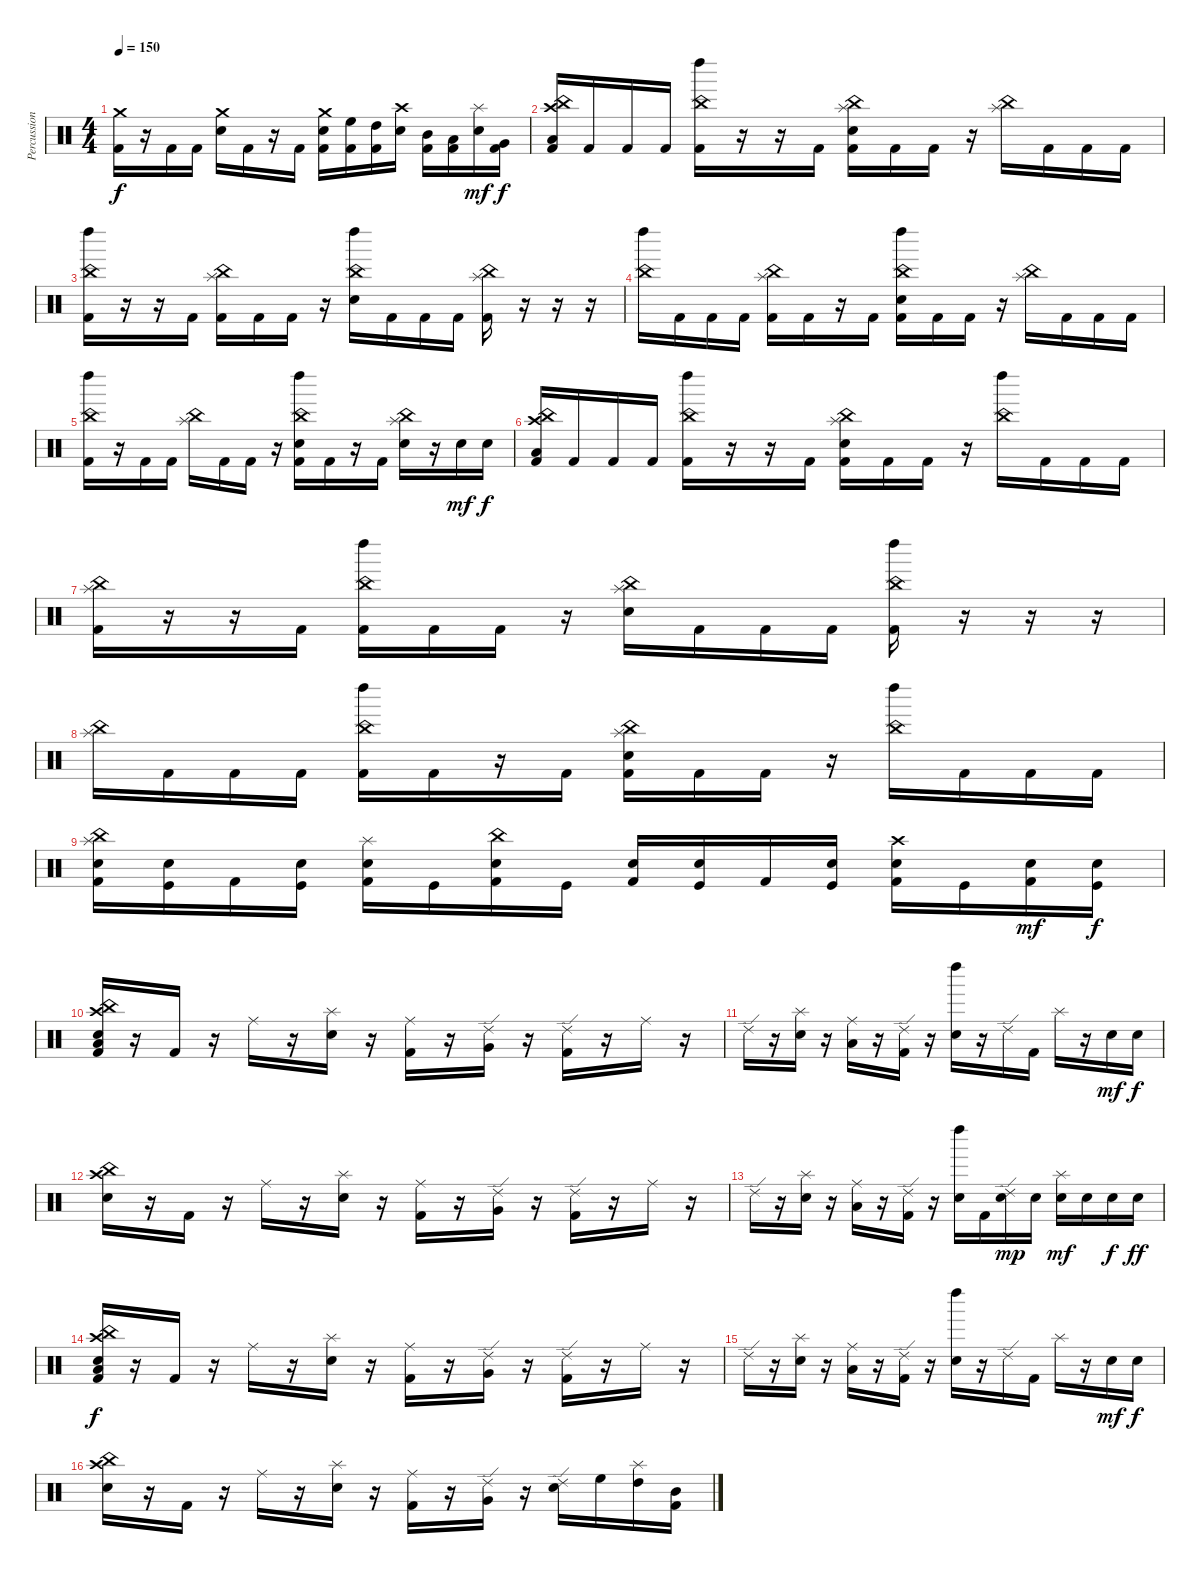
\track ("Percussion" "Percussion") {instrument percussion}
\staff {score}
\articulation defaults
\ts (4 4)
\tempo 150
\clef neutral
\ks c
("Crash medium (hit)" "Kick (hit) 2").16{dy f} r.16 "Kick (hit) 2".16 "Kick (hit) 2".16 ("Crash medium (hit)" "Electric Snare (hit)").16 "Kick (hit) 2".16 r.16 "Kick (hit) 2".16 ("Crash medium (hit)" "Electric Snare (hit)" "Kick (hit) 2").16 ("High Floor Tom (hit)" "Kick (hit) 2").16 ("High Tom (hit)" "Kick (hit) 2").16 ("Crash high (hit)" "Electric Snare (hit)").16 ("Mid Tom (hit)" "Kick (hit) 2").16 ("Low Tom (hit)" "Kick (hit) 2").16 ("Splash (hit)" "Electric Snare (hit)").16{dy mf} ("Very Low Tom (hit)" "Kick (hit) 2").16{dy f} |
("China (hit)" "Crash high (hit)" "Low Floor Tom (hit)" "Kick (hit) 2").16 "Kick (hit) 2".16 "Kick (hit) 2".16 "Kick (hit) 2".16 ("China (hit)" "Left Maraca (hit)" "Kick (hit) 2").16 r.16 r.16 "Kick (hit) 2".16 ("China (hit)" "Splash (hit)" "Electric Snare (hit)" "Kick (hit) 2").16 "Kick (hit) 2".16 "Kick (hit) 2".16 r.16 ("China (hit)" "Splash (hit)").16 "Kick (hit) 2".16 "Kick (hit) 2".16 "Kick (hit) 2".16 |
("China (hit)" "Left Maraca (hit)" "Kick (hit) 2").16 r.16 r.16 "Kick (hit) 2".16 ("China (hit)" "Splash (hit)" "Kick (hit) 2").16 "Kick (hit) 2".16 "Kick (hit) 2".16 r.16 ("China (hit)" "Left Maraca (hit)" "Electric Snare (hit)").16 "Kick (hit) 2".16 "Kick (hit) 2".16 "Kick (hit) 2".16 ("China (hit)" "Splash (hit)" "Kick (hit) 2").16 r.16 r.16 r.16 |
("China (hit)" "Left Maraca (hit)").16 "Kick (hit) 2".16 "Kick (hit) 2".16 "Kick (hit) 2".16 ("China (hit)" "Splash (hit)" "Kick (hit) 2").16 "Kick (hit) 2".16 r.16 "Kick (hit) 2".16 ("China (hit)" "Left Maraca (hit)" "Electric Snare (hit)" "Kick (hit) 2").16 "Kick (hit) 2".16 "Kick (hit) 2".16 r.16 ("China (hit)" "Splash (hit)").16 "Kick (hit) 2".16 "Kick (hit) 2".16 "Kick (hit) 2".16 |
("China (hit)" "Left Maraca (hit)" "Kick (hit) 2").16 r.16 "Kick (hit) 2".16 "Kick (hit) 2".16 ("China (hit)" "Splash (hit)").16 "Kick (hit) 2".16 "Kick (hit) 2".16 r.16 ("China (hit)" "Left Maraca (hit)" "Electric Snare (hit)" "Kick (hit) 2").16 "Kick (hit) 2".16 r.16 "Kick (hit) 2".16 ("China (hit)" "Splash (hit)" "Electric Snare (hit)").16 r.16 "Electric Snare (hit)".16{dy mf} "Electric Snare (hit)".16{dy f} |
("China (hit)" "Crash high (hit)" "Low Floor Tom (hit)" "Kick (hit) 2").16 "Kick (hit) 2".16 "Kick (hit) 2".16 "Kick (hit) 2".16 ("China (hit)" "Left Maraca (hit)" "Kick (hit) 2").16 r.16 r.16 "Kick (hit) 2".16 ("China (hit)" "Splash (hit)" "Electric Snare (hit)" "Kick (hit) 2").16 "Kick (hit) 2".16 "Kick (hit) 2".16 r.16 ("China (hit)" "Left Maraca (hit)").16 "Kick (hit) 2".16 "Kick (hit) 2".16 "Kick (hit) 2".16 |
("China (hit)" "Splash (hit)" "Kick (hit) 2").16 r.16 r.16 "Kick (hit) 2".16 ("China (hit)" "Left Maraca (hit)" "Kick (hit) 2").16 "Kick (hit) 2".16 "Kick (hit) 2".16 r.16 ("China (hit)" "Splash (hit)" "Electric Snare (hit)").16 "Kick (hit) 2".16 "Kick (hit) 2".16 "Kick (hit) 2".16 ("China (hit)" "Left Maraca (hit)" "Kick (hit) 2").16 r.16 r.16 r.16 |
("China (hit)" "Splash (hit)").16 "Kick (hit) 2".16 "Kick (hit) 2".16 "Kick (hit) 2".16 ("China (hit)" "Left Maraca (hit)" "Kick (hit) 2").16 "Kick (hit) 2".16 r.16 "Kick (hit) 2".16 ("China (hit)" "Splash (hit)" "Electric Snare (hit)" "Kick (hit) 2").16 "Kick (hit) 2".16 "Kick (hit) 2".16 r.16 ("China (hit)" "Left Maraca (hit)").16 "Kick (hit) 2".16 "Kick (hit) 2".16 "Kick (hit) 2".16 |
("China (hit)" "Splash (hit)" "Electric Snare (hit)" "Kick (hit) 2").16 ("Electric Snare (hit)" "Kick (hit)").16 "Kick (hit) 2".16 ("Electric Snare (hit)" "Kick (hit)").16 ("Splash (hit)" "Electric Snare (hit)" "Kick (hit) 2").16 "Kick (hit)".16 ("China (hit)" "Electric Snare (hit)" "Kick (hit) 2").16 "Kick (hit)".16 ("Electric Snare (hit)" "Kick (hit) 2").16 ("Electric Snare (hit)" "Kick (hit)").16 "Kick (hit) 2".16 ("Electric Snare (hit)" "Kick (hit)").16 ("Crash high (hit)" "Electric Snare (hit)" "Kick (hit) 2").16 "Kick (hit)".16 ("Electric Snare (hit)" "Kick (hit) 2").16{dy mf} ("Electric Snare (hit)" "Kick (hit)").16{dy f} |
("Crash high (hit)" "China (hit)" "Electric Snare (hit)" "Low Floor Tom (hit)" "Kick (hit) 2").16 r.16 "Kick (hit) 2".16 r.16 "Ride (middle)".16 r.16 ("Splash (hit)" "Electric Snare (hit)").16 r.16 ("Ride (middle)" "Kick (hit) 2").16 r.16 ("Ride (edge) 2" "Very Low Tom (hit)").16 r.16 ("Ride (edge) 2" "Kick (hit) 2").16 r.16 "Ride (middle)".16 r.16 |
"Ride (edge) 2".16 r.16 ("Splash (hit)" "Electric Snare (hit)").16 r.16 ("Ride (middle)" "Low Tom (hit)").16 r.16 ("Ride (edge) 2" "Kick (hit) 2").16 r.16 ("Left Maraca (hit)" "Electric Snare (hit)").16 r.16 "Ride (edge) 2".16 "Kick (hit) 2".16 "Splash (hit)".16 r.16 "Electric Snare (hit)".16{dy mf} "Electric Snare (hit)".16{dy f} |
("Crash high (hit)" "China (hit)" "Electric Snare (hit)").16 r.16 "Kick (hit) 2".16 r.16 "Ride (middle)".16 r.16 ("Splash (hit)" "Electric Snare (hit)").16 r.16 ("Ride (middle)" "Kick (hit) 2").16 r.16 ("Ride (edge) 2" "Very Low Tom (hit)").16 r.16 ("Ride (edge) 2" "Kick (hit) 2").16 r.16 "Ride (middle)".16 r.16 |
"Ride (edge) 2".16 r.16 ("Splash (hit)" "Electric Snare (hit)").16 r.16 ("Ride (middle)" "Low Tom (hit)").16 r.16 ("Ride (edge) 2" "Kick (hit) 2").16 r.16 ("Left Maraca (hit)" "Electric Snare (hit)").16 "Kick (hit) 2".16 ("Ride (edge) 2" "Electric Snare (hit)").16{dy mp} "Electric Snare (hit)".16 ("Splash (hit)" "Electric Snare (hit)").16{dy mf} "Electric Snare (hit)".16 "Electric Snare (hit)".16{dy f} "Electric Snare (hit)".16{dy ff} |
("Crash high (hit)" "China (hit)" "Electric Snare (hit)" "Low Floor Tom (hit)" "Kick (hit) 2").16{dy f} r.16 "Kick (hit) 2".16 r.16 "Ride (middle)".16 r.16 ("Splash (hit)" "Electric Snare (hit)").16 r.16 ("Ride (middle)" "Kick (hit) 2").16 r.16 ("Ride (edge) 2" "Very Low Tom (hit)").16 r.16 ("Ride (edge) 2" "Kick (hit) 2").16 r.16 "Ride (middle)".16 r.16 |
"Ride (edge) 2".16 r.16 ("Splash (hit)" "Electric Snare (hit)").16 r.16 ("Ride (middle)" "Low Tom (hit)").16 r.16 ("Ride (edge) 2" "Kick (hit) 2").16 r.16 ("Left Maraca (hit)" "Electric Snare (hit)").16 r.16 "Ride (edge) 2".16 "Kick (hit) 2".16 "Splash (hit)".16 r.16 "Electric Snare (hit)".16{dy mf} "Electric Snare (hit)".16{dy f} |
("Crash high (hit)" "China (hit)" "Electric Snare (hit)").16 r.16 "Kick (hit) 2".16 r.16 "Ride (middle)".16 r.16 ("Splash (hit)" "Electric Snare (hit)").16 r.16 ("Ride (middle)" "Kick (hit) 2").16 r.16 ("Ride (edge) 2" "Very Low Tom (hit)").16 r.16 ("Ride (edge) 2" "Electric Snare (hit)").16 "High Floor Tom (hit)".16 ("Splash (hit)" "High Tom (hit)").16 ("Mid Tom (hit)" "Kick (hit) 2").16
